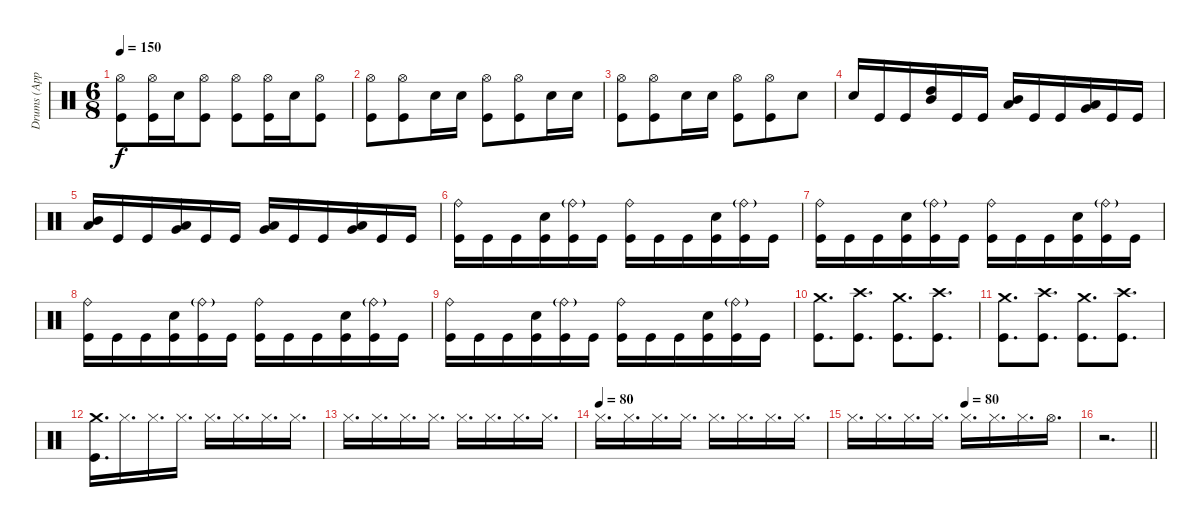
\track ("Drums (Appelhans/Durst)" "Drums (App") {instrument percussion}
\staff {score}
\articulation defaults
\ts (6 8)
\tempo 150
\clef neutral
\ks c
("Kick (hit)" "Hi-Hat (open)").8{dy f} ("Kick (hit)" "Hi-Hat (open)").16 "Snare (hit) 2".16 ("Kick (hit)" "Hi-Hat (open)").8 ("Kick (hit)" "Hi-Hat (open)").8 ("Kick (hit)" "Hi-Hat (open)").16 "Snare (hit) 2".16 ("Kick (hit)" "Hi-Hat (open)").8 |
("Kick (hit)" "Hi-Hat (open)").8 ("Kick (hit)" "Hi-Hat (open)").8 "Snare (hit) 2".16 "Snare (hit) 2".16 ("Kick (hit)" "Hi-Hat (open)").8 ("Kick (hit)" "Hi-Hat (open)").8 "Snare (hit) 2".16 "Snare (hit) 2".16 |
("Kick (hit)" "Hi-Hat (open)").8 ("Kick (hit)" "Hi-Hat (open)").8 "Snare (hit) 2".16 "Snare (hit) 2".16 ("Kick (hit)" "Hi-Hat (open)").8 ("Kick (hit)" "Hi-Hat (open)").8 "Snare (hit) 2".8 |
"Snare (hit) 2".16 "Kick (hit)".16 "Kick (hit)".16 ("High Tom (hit)" "Mid Tom (hit)").16 "Kick (hit)".16 "Kick (hit)".16 ("Mid Tom (hit)" "Low Tom (hit)").16 "Kick (hit)".16 "Kick (hit)".16 ("Low Tom (hit)" "Very Low Tom (hit)").16 "Kick (hit)".16 "Kick (hit)".16 |
("Mid Tom (hit)" "Low Tom (hit)").16 "Kick (hit)".16 "Kick (hit)".16 ("Low Tom (hit)" "Very Low Tom (hit)").16 "Kick (hit)".16 "Kick (hit)".16 ("Low Tom (hit)" "Very Low Tom (hit)").16 "Kick (hit)".16 "Kick (hit)".16 ("Low Floor Tom (hit)" "Very Low Tom (hit)").16 "Kick (hit)".16 "Kick (hit)".16 |
("Kick (hit)" "Ride (bell)").16 "Kick (hit)".16 "Kick (hit)".16 ("Kick (hit)" "Snare (hit) 2").16 ("Kick (hit)" "Ride (bell)"{g}).16 "Kick (hit)".16 ("Kick (hit)" "Ride (bell)").16 "Kick (hit)".16 "Kick (hit)".16 ("Kick (hit)" "Snare (hit) 2").16 ("Kick (hit)" "Ride (bell)"{g}).16 "Kick (hit)".16 |
("Kick (hit)" "Ride (bell)").16 "Kick (hit)".16 "Kick (hit)".16 ("Kick (hit)" "Snare (hit) 2").16 ("Kick (hit)" "Ride (bell)"{g}).16 "Kick (hit)".16 ("Kick (hit)" "Ride (bell)").16 "Kick (hit)".16 "Kick (hit)".16 ("Kick (hit)" "Snare (hit) 2").16 ("Kick (hit)" "Ride (bell)"{g}).16 "Kick (hit)".16 |
("Kick (hit)" "Ride (bell)").16 "Kick (hit)".16 "Kick (hit)".16 ("Kick (hit)" "Snare (hit) 2").16 ("Kick (hit)" "Ride (bell)"{g}).16 "Kick (hit)".16 ("Kick (hit)" "Ride (bell)").16 "Kick (hit)".16 "Kick (hit)".16 ("Kick (hit)" "Snare (hit) 2").16 ("Kick (hit)" "Ride (bell)"{g}).16 "Kick (hit)".16 |
("Kick (hit)" "Ride (bell)").16 "Kick (hit)".16 "Kick (hit)".16 ("Kick (hit)" "Snare (hit) 2").16 ("Kick (hit)" "Ride (bell)"{g}).16 "Kick (hit)".16 ("Kick (hit)" "Ride (bell)").16 "Kick (hit)".16 "Kick (hit)".16 ("Kick (hit)" "Snare (hit) 2").16 ("Kick (hit)" "Ride (bell)"{g}).16 "Kick (hit)".16 |
("Kick (hit)" "Crash medium (hit)").8{d} ("Kick (hit)" "Crash high (hit)").8{d} ("Kick (hit)" "Crash medium (hit)").8{d} ("Kick (hit)" "Crash high (hit)").8{d} |
("Kick (hit)" "Crash medium (hit)").8{d} ("Kick (hit)" "Crash high (hit)").8{d} ("Kick (hit)" "Crash medium (hit)").8{d} ("Kick (hit)" "Crash high (hit)").8{d} |
("Kick (hit)" "Crash medium (hit)").16{d} "Hi-Hat (closed)".16{d} "Hi-Hat (closed)".16{d} "Hi-Hat (closed)".16{d} "Hi-Hat (closed)".16{d} "Hi-Hat (closed)".16{d} "Hi-Hat (closed)".16{d} "Hi-Hat (closed)".16{d} |
"Hi-Hat (closed)".16{d} "Hi-Hat (closed)".16{d} "Hi-Hat (closed)".16{d} "Hi-Hat (closed)".16{d} "Hi-Hat (closed)".16{d} "Hi-Hat (closed)".16{d} "Hi-Hat (closed)".16{d} "Hi-Hat (closed)".16{d} |
\tempo (80)
"Hi-Hat (closed)".16{d} "Hi-Hat (closed)".16{d} "Hi-Hat (closed)".16{d} "Hi-Hat (closed)".16{d} "Hi-Hat (closed)".16{d} "Hi-Hat (closed)".16{d} "Hi-Hat (closed)".16{d} "Hi-Hat (closed)".16{d} |
\tempo (80 0.5)
"Hi-Hat (closed)".16{d} "Hi-Hat (closed)".16{d} "Hi-Hat (closed)".16{d} "Hi-Hat (closed)".16{d} "Hi-Hat (closed)".16{d} "Hi-Hat (closed)".16{d} "Hi-Hat (closed)".16{d} "Hi-Hat (open)".16{d} |
\barLineRight lightlight
r.2{d}
